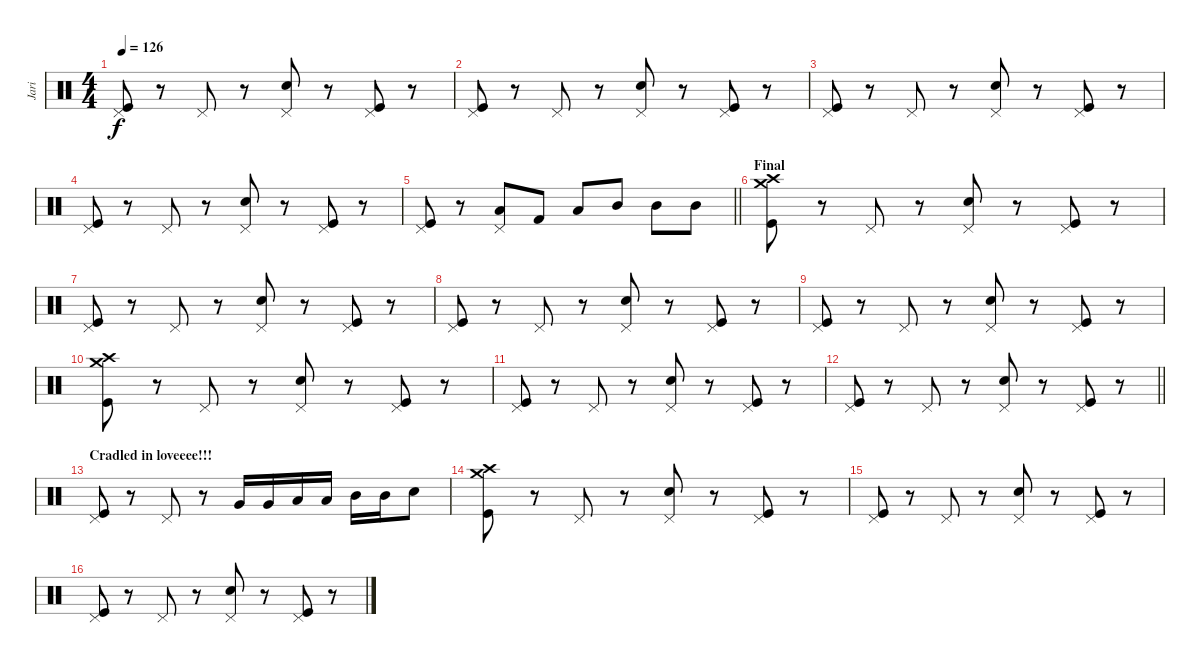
\track ("Jari" "Jari") {instrument percussion}
\staff {score}
\articulation defaults
\ts (4 4)
\tempo 126
\clef neutral
\ks c
("Pedal Hi-Hat (hit)" "Kick (hit)").8{dy f} r.8 "Pedal Hi-Hat (hit)".8 r.8 ("Pedal Hi-Hat (hit)" "Snare (hit) 2").8 r.8 ("Pedal Hi-Hat (hit)" "Kick (hit)").8 r.8 |
("Pedal Hi-Hat (hit)" "Kick (hit)").8 r.8 "Pedal Hi-Hat (hit)".8 r.8 ("Pedal Hi-Hat (hit)" "Snare (hit) 2").8 r.8 ("Pedal Hi-Hat (hit)" "Kick (hit)").8 r.8 |
("Pedal Hi-Hat (hit)" "Kick (hit)").8 r.8 "Pedal Hi-Hat (hit)".8 r.8 ("Pedal Hi-Hat (hit)" "Snare (hit) 2").8 r.8 ("Pedal Hi-Hat (hit)" "Kick (hit)").8 r.8 |
("Pedal Hi-Hat (hit)" "Kick (hit)").8 r.8 "Pedal Hi-Hat (hit)".8 r.8 ("Pedal Hi-Hat (hit)" "Snare (hit) 2").8 r.8 ("Pedal Hi-Hat (hit)" "Kick (hit)").8 r.8 |
\barLineRight lightlight
("Pedal Hi-Hat (hit)" "Kick (hit)").8 r.8 ("Low Tom (hit)" "Pedal Hi-Hat (hit)").8 "Kick (hit) 2".8 "Low Tom (hit)".8 "Mid Tom (hit)".8 "Mid Tom (hit)".8 "Mid Tom (hit)".8 |
\section ("" "Final")
("Crash medium (hit)" "Crash high (hit)" "Kick (hit)").8 r.8 "Pedal Hi-Hat (hit)".8 r.8 ("Pedal Hi-Hat (hit)" "Snare (hit) 2").8 r.8 ("Pedal Hi-Hat (hit)" "Kick (hit)").8 r.8 |
("Pedal Hi-Hat (hit)" "Kick (hit)").8 r.8 "Pedal Hi-Hat (hit)".8 r.8 ("Pedal Hi-Hat (hit)" "Snare (hit) 2").8 r.8 ("Pedal Hi-Hat (hit)" "Kick (hit)").8 r.8 |
("Pedal Hi-Hat (hit)" "Kick (hit)").8 r.8 "Pedal Hi-Hat (hit)".8 r.8 ("Pedal Hi-Hat (hit)" "Snare (hit) 2").8 r.8 ("Pedal Hi-Hat (hit)" "Kick (hit)").8 r.8 |
("Pedal Hi-Hat (hit)" "Kick (hit)").8 r.8 "Pedal Hi-Hat (hit)".8 r.8 ("Pedal Hi-Hat (hit)" "Snare (hit) 2").8 r.8 ("Pedal Hi-Hat (hit)" "Kick (hit)").8 r.8 |
("Crash medium (hit)" "Crash high (hit)" "Kick (hit)").8 r.8 "Pedal Hi-Hat (hit)".8 r.8 ("Pedal Hi-Hat (hit)" "Snare (hit) 2").8 r.8 ("Pedal Hi-Hat (hit)" "Kick (hit)").8 r.8 |
("Pedal Hi-Hat (hit)" "Kick (hit)").8 r.8 "Pedal Hi-Hat (hit)".8 r.8 ("Pedal Hi-Hat (hit)" "Snare (hit) 2").8 r.8 ("Pedal Hi-Hat (hit)" "Kick (hit)").8 r.8 |
\barLineRight lightlight
("Pedal Hi-Hat (hit)" "Kick (hit)").8 r.8 "Pedal Hi-Hat (hit)".8 r.8 ("Pedal Hi-Hat (hit)" "Snare (hit) 2").8 r.8 ("Pedal Hi-Hat (hit)" "Kick (hit)").8 r.8 |
\section ("" "Cradled in loveeee!!!")
("Pedal Hi-Hat (hit)" "Kick (hit)").8 r.8 "Pedal Hi-Hat (hit)".8 r.8 "Very Low Tom (hit)".16 "Very Low Tom (hit)".16 "Low Tom (hit)".16 "Low Tom (hit)".16 "Mid Tom (hit)".16 "Mid Tom (hit)".16 "Snare (hit) 2".8 |
("Crash medium (hit)" "Crash high (hit)" "Kick (hit)").8 r.8 "Pedal Hi-Hat (hit)".8 r.8 ("Pedal Hi-Hat (hit)" "Snare (hit) 2").8 r.8 ("Pedal Hi-Hat (hit)" "Kick (hit)").8 r.8 |
("Pedal Hi-Hat (hit)" "Kick (hit)").8 r.8 "Pedal Hi-Hat (hit)".8 r.8 ("Pedal Hi-Hat (hit)" "Snare (hit) 2").8 r.8 ("Pedal Hi-Hat (hit)" "Kick (hit)").8 r.8 |
("Pedal Hi-Hat (hit)" "Kick (hit)").8 r.8 "Pedal Hi-Hat (hit)".8 r.8 ("Pedal Hi-Hat (hit)" "Snare (hit) 2").8 r.8 ("Pedal Hi-Hat (hit)" "Kick (hit)").8 r.8
